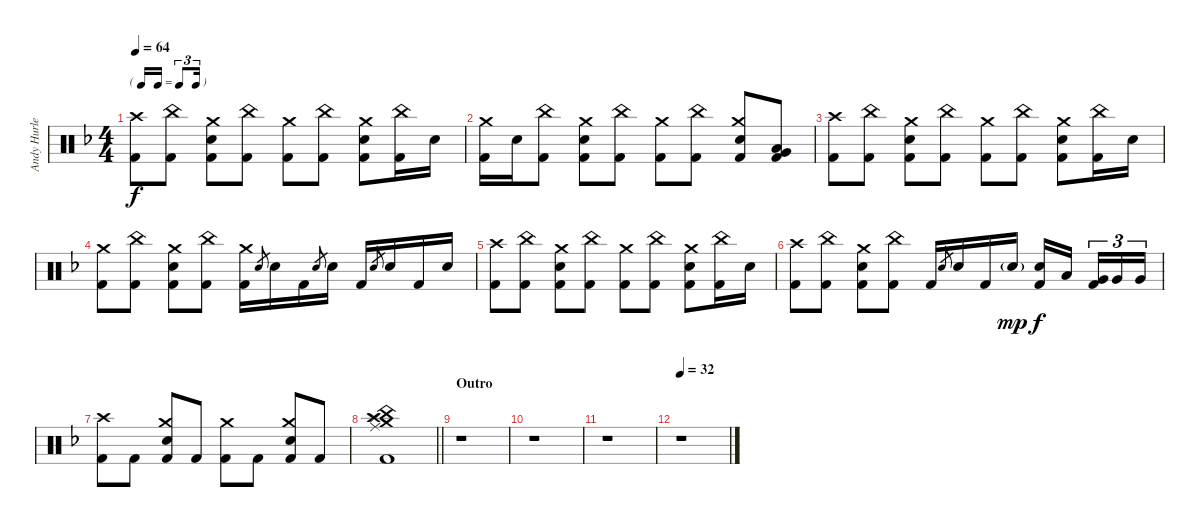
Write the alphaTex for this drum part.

\track ("Andy Hurley" "Andy Hurle") {instrument percussion}
\staff {score}
\articulation defaults
\ts (4 4)
\tf triplet16th
\tempo 64
\clef neutral
\ks f
("Crash high (hit)" "Kick (hit) 2").8{dy f} ("China (hit)" "Kick (hit) 2").8 ("Crash medium (hit)" "Snare (hit) 2" "Kick (hit) 2").8 ("China (hit)" "Kick (hit) 2").8 ("Crash medium (hit)" "Kick (hit) 2").8 ("China (hit)" "Kick (hit) 2").8 ("Crash medium (hit)" "Snare (hit) 2" "Kick (hit) 2").8 ("China (hit)" "Kick (hit) 2").16 "Snare (hit) 2".16 |
("Crash medium (hit)" "Kick (hit) 2").16 "Snare (hit) 2".16 ("China (hit)" "Kick (hit) 2").8 ("Crash medium (hit)" "Snare (hit) 2" "Kick (hit) 2").8 ("China (hit)" "Kick (hit) 2").8 ("Crash medium (hit)" "Kick (hit) 2").8 ("China (hit)" "Kick (hit) 2").8 ("Crash medium (hit)" "Snare (hit) 2" "Kick (hit) 2").8 ("Low Tom (hit)" "Very Low Tom (hit)" "Kick (hit) 2").8 |
("Crash high (hit)" "Kick (hit) 2").8 ("China (hit)" "Kick (hit) 2").8 ("Crash medium (hit)" "Snare (hit) 2" "Kick (hit) 2").8 ("China (hit)" "Kick (hit) 2").8 ("Crash medium (hit)" "Kick (hit) 2").8 ("China (hit)" "Kick (hit) 2").8 ("Crash medium (hit)" "Snare (hit) 2" "Kick (hit) 2").8 ("China (hit)" "Kick (hit) 2").16 "Snare (hit) 2".16 |
("Crash medium (hit)" "Kick (hit) 2").8 ("China (hit)" "Kick (hit) 2").8 ("Crash medium (hit)" "Snare (hit) 2" "Kick (hit) 2").8 ("China (hit)" "Kick (hit) 2").8 ("Crash medium (hit)" "Kick (hit) 2").16 "Snare (hit) 2".8{gr} "Snare (hit) 2".16 "Kick (hit) 2".16 "Snare (hit) 2".8{gr} "Snare (hit) 2".16 "Kick (hit) 2".16 "Snare (hit) 2".8{gr} "Snare (hit) 2".16 "Kick (hit) 2".16 "Snare (hit) 2".16 |
("Crash high (hit)" "Kick (hit) 2").8 ("China (hit)" "Kick (hit) 2").8 ("Crash medium (hit)" "Snare (hit) 2" "Kick (hit) 2").8 ("China (hit)" "Kick (hit) 2").8 ("Crash medium (hit)" "Kick (hit) 2").8 ("China (hit)" "Kick (hit) 2").8 ("Crash medium (hit)" "Snare (hit) 2" "Kick (hit) 2").8 ("China (hit)" "Kick (hit) 2").16 "Snare (hit) 2".16 |
("Crash high (hit)" "Kick (hit) 2").8 ("China (hit)" "Kick (hit) 2").8 ("Crash medium (hit)" "Snare (hit) 2" "Kick (hit) 2").8 ("China (hit)" "Kick (hit) 2").8 "Kick (hit) 2".16 "Snare (hit) 2".8{gr} "Snare (hit) 2".16 "Kick (hit) 2".16 "Snare (hit) 2"{g}.16{dy mp} ("Snare (hit) 2" "Kick (hit) 2").16{dy f} "Low Tom (hit)".16{beam splitsecondary} ("Very Low Tom (hit)" "Kick (hit) 2").16{tu (3 2)} "Very Low Tom (hit)".16{tu (3 2)} "Very Low Tom (hit)".16{tu (3 2)} |
("Crash high (hit)" "Kick (hit) 2").8 "Kick (hit) 2".8 ("Crash medium (hit)" "Snare (hit) 2" "Kick (hit) 2").8 "Kick (hit) 2".8 ("Crash medium (hit)" "Kick (hit) 2").8 "Kick (hit) 2".8 ("Crash medium (hit)" "Snare (hit) 2" "Kick (hit) 2").8 "Kick (hit) 2".8 |
\barLineRight lightlight
("Crash high (hit)" "Crash medium (hit)" "China (hit)" "Splash (hit)" "Ride (middle)" "Kick (hit) 2").1 |
\section ("" "Outro")
r.1 |
r.1 |
r.1 |
\tempo 32
r.1
